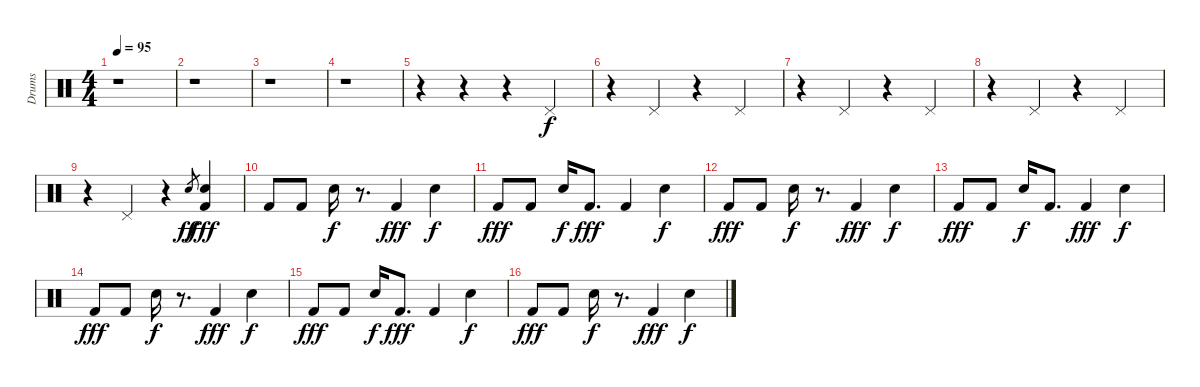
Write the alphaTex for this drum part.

\bracketExtendMode groupsimilarinstruments
\otherSystemsTrackNameOrientation horizontal
\track ("Drumkit" "Drums") {instrument percussion}
\staff {score}
\articulation defaults
\ts (4 4)
\beaming (8 2 2 2 2)
\tempo 95
\clef neutral
\ks c
r.1{dy f} |
r.1 |
r.1 |
r.1 |
r.4 r.4 r.4 "Pedal Hi-Hat (hit)".4 |
r.4 "Pedal Hi-Hat (hit)".4 r.4 "Pedal Hi-Hat (hit)".4 |
r.4 "Pedal Hi-Hat (hit)".4 r.4 "Pedal Hi-Hat (hit)".4 |
r.4 "Pedal Hi-Hat (hit)".4 r.4 "Pedal Hi-Hat (hit)".4 |
r.4 "Pedal Hi-Hat (hit)".4 r.4 "Snare (hit) 2".8{gr dy ff} ("Kick (hit) 2" "Snare (hit) 2").4{dy fff} |
"Kick (hit) 2".8 "Kick (hit) 2".8 "Snare (hit) 2".16{dy f} r.8{d} "Kick (hit) 2".4{dy fff} "Snare (hit) 2".4{dy f} |
"Kick (hit) 2".8{dy fff} "Kick (hit) 2".8 "Snare (hit) 2".16{dy f} "Kick (hit) 2".8{d dy fff} "Kick (hit) 2".4 "Snare (hit) 2".4{dy f} |
"Kick (hit) 2".8{dy fff} "Kick (hit) 2".8 "Snare (hit) 2".16{dy f} r.8{d} "Kick (hit) 2".4{dy fff} "Snare (hit) 2".4{dy f} |
"Kick (hit) 2".8{dy fff} "Kick (hit) 2".8 "Snare (hit) 2".16{dy f} "Kick (hit) 2".8{d} "Kick (hit) 2".4{dy fff} "Snare (hit) 2".4{dy f} |
"Kick (hit) 2".8{dy fff} "Kick (hit) 2".8 "Snare (hit) 2".16{dy f} r.8{d} "Kick (hit) 2".4{dy fff} "Snare (hit) 2".4{dy f} |
"Kick (hit) 2".8{dy fff} "Kick (hit) 2".8 "Snare (hit) 2".16{dy f} "Kick (hit) 2".8{d dy fff} "Kick (hit) 2".4 "Snare (hit) 2".4{dy f} |
"Kick (hit) 2".8{dy fff} "Kick (hit) 2".8 "Snare (hit) 2".16{dy f} r.8{d} "Kick (hit) 2".4{dy fff} "Snare (hit) 2".4{dy f}
